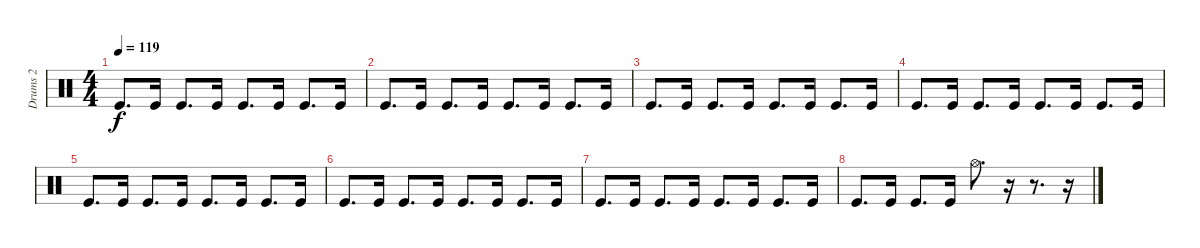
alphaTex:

\track ("Drums 2" "Drums 2") {instrument percussion}
\staff {score}
\articulation defaults
\ts (4 4)
\tempo 119
\clef neutral
\ks c "Kick (hit)".8{d dy f volume 10} "Kick (hit)".16 "Kick (hit)".8{d} "Kick (hit)".16 "Kick (hit)".8{d} "Kick (hit)".16 "Kick (hit)".8{d} "Kick (hit)".16
|
"Kick (hit)".8{d} "Kick (hit)".16 "Kick (hit)".8{d} "Kick (hit)".16 "Kick (hit)".8{d} "Kick (hit)".16 "Kick (hit)".8{d} "Kick (hit)".16 |
"Kick (hit)".8{d} "Kick (hit)".16 "Kick (hit)".8{d} "Kick (hit)".16 "Kick (hit)".8{d} "Kick (hit)".16 "Kick (hit)".8{d} "Kick (hit)".16 |
"Kick (hit)".8{d} "Kick (hit)".16 "Kick (hit)".8{d} "Kick (hit)".16 "Kick (hit)".8{d} "Kick (hit)".16 "Kick (hit)".8{d} "Kick (hit)".16 |
"Kick (hit)".8{d} "Kick (hit)".16 "Kick (hit)".8{d} "Kick (hit)".16 "Kick (hit)".8{d} "Kick (hit)".16 "Kick (hit)".8{d} "Kick (hit)".16 |
"Kick (hit)".8{d} "Kick (hit)".16 "Kick (hit)".8{d} "Kick (hit)".16 "Kick (hit)".8{d} "Kick (hit)".16 "Kick (hit)".8{d} "Kick (hit)".16 |
"Kick (hit)".8{d} "Kick (hit)".16 "Kick (hit)".8{d} "Kick (hit)".16 "Kick (hit)".8{d} "Kick (hit)".16 "Kick (hit)".8{d} "Kick (hit)".16 |
"Kick (hit)".8{d} "Kick (hit)".16 "Kick (hit)".8{d} "Kick (hit)".16 "Hi-Hat (open)".8{d} r.16 r.8{d} r.16
